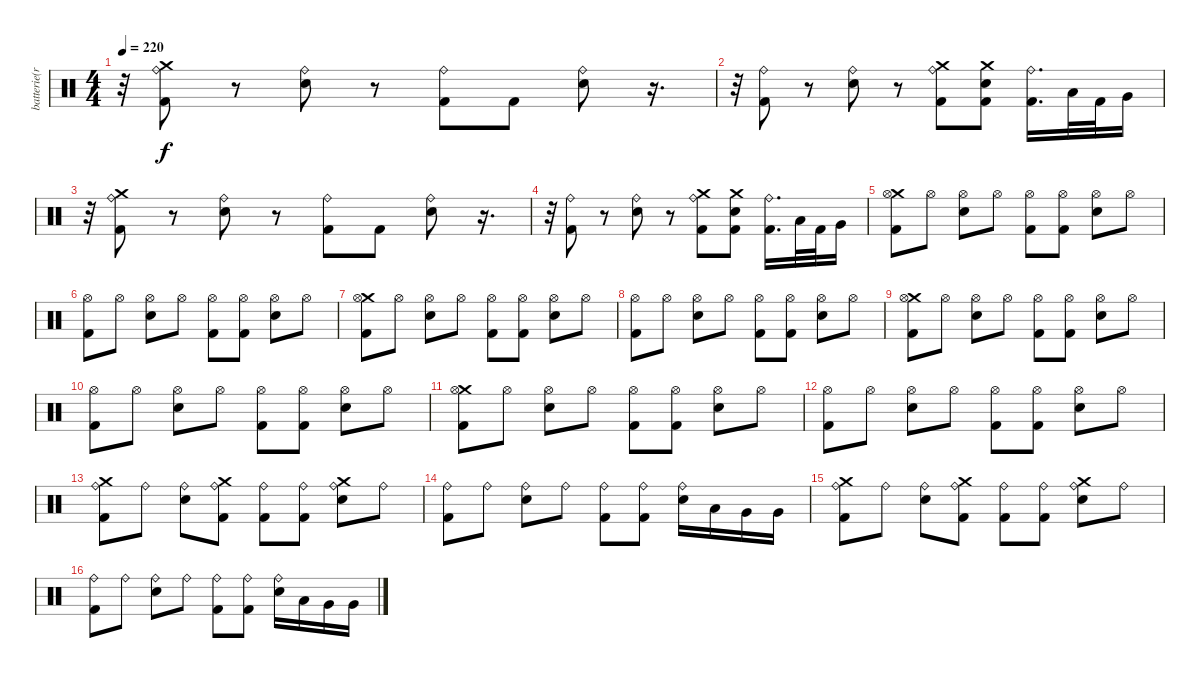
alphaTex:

\track ("batterie(richie)" "batterie(r") {instrument percussion}
\staff {score}
\articulation defaults
\ts (4 4)
\tempo 220
\clef neutral
\ks c
r.32{dy f} ("Crash medium (hit)" "Ride (bell)" "Kick (hit) 2").8 r.8 ("Ride (bell)" "Electric Snare (hit)").8 r.8 ("Ride (bell)" "Kick (hit) 2").8 "Kick (hit) 2".8 ("Ride (bell)" "Electric Snare (hit)").8 r.16{d} |
r.32 ("Ride (bell)" "Kick (hit) 2").8 r.8 ("Ride (bell)" "Electric Snare (hit)").8 r.8 ("Crash medium (hit)" "Ride (bell)" "Kick (hit) 2").8 ("Electric Snare (hit)" "Crash medium (hit)" "Kick (hit) 2").8 ("Kick (hit) 2" "Ride (bell)").16{d} "Low Tom (hit)".32 "Kick (hit) 2".32 "Very Low Tom (hit)".16 |
r.32 ("Crash medium (hit)" "Ride (bell)" "Kick (hit) 2").8 r.8 ("Ride (bell)" "Electric Snare (hit)").8 r.8 ("Ride (bell)" "Kick (hit) 2").8 "Kick (hit) 2".8 ("Ride (bell)" "Electric Snare (hit)").8 r.16{d} |
r.32 ("Ride (bell)" "Kick (hit) 2").8 r.8 ("Ride (bell)" "Electric Snare (hit)").8 r.8 ("Crash medium (hit)" "Ride (bell)" "Kick (hit) 2").8 ("Electric Snare (hit)" "Crash medium (hit)" "Kick (hit) 2").8 ("Kick (hit) 2" "Ride (bell)").16{d} "Low Tom (hit)".32 "Kick (hit) 2".32 "Very Low Tom (hit)".16 |
("Kick (hit) 2" "Crash medium (hit)" "Hi-Hat (open)").8 "Hi-Hat (open)".8 ("Electric Snare (hit)" "Hi-Hat (open)").8 "Hi-Hat (open)".8 ("Hi-Hat (open)" "Kick (hit) 2").8 ("Hi-Hat (open)" "Kick (hit) 2").8 ("Electric Snare (hit)" "Hi-Hat (open)").8 "Hi-Hat (open)".8 |
("Kick (hit) 2" "Hi-Hat (open)").8 "Hi-Hat (open)".8 ("Electric Snare (hit)" "Hi-Hat (open)").8 "Hi-Hat (open)".8 ("Hi-Hat (open)" "Kick (hit) 2").8 ("Hi-Hat (open)" "Kick (hit) 2").8 ("Electric Snare (hit)" "Hi-Hat (open)").8 "Hi-Hat (open)".8 |
("Kick (hit) 2" "Crash medium (hit)" "Hi-Hat (open)").8 "Hi-Hat (open)".8 ("Electric Snare (hit)" "Hi-Hat (open)").8 "Hi-Hat (open)".8 ("Hi-Hat (open)" "Kick (hit) 2").8 ("Hi-Hat (open)" "Kick (hit) 2").8 ("Electric Snare (hit)" "Hi-Hat (open)").8 "Hi-Hat (open)".8 |
("Kick (hit) 2" "Hi-Hat (open)").8 "Hi-Hat (open)".8 ("Electric Snare (hit)" "Hi-Hat (open)").8 "Hi-Hat (open)".8 ("Hi-Hat (open)" "Kick (hit) 2").8 ("Hi-Hat (open)" "Kick (hit) 2").8 ("Electric Snare (hit)" "Hi-Hat (open)").8 "Hi-Hat (open)".8 |
("Kick (hit) 2" "Crash medium (hit)" "Hi-Hat (open)").8 "Hi-Hat (open)".8 ("Electric Snare (hit)" "Hi-Hat (open)").8 "Hi-Hat (open)".8 ("Hi-Hat (open)" "Kick (hit) 2").8 ("Hi-Hat (open)" "Kick (hit) 2").8 ("Electric Snare (hit)" "Hi-Hat (open)").8 "Hi-Hat (open)".8 |
("Kick (hit) 2" "Hi-Hat (open)").8 "Hi-Hat (open)".8 ("Electric Snare (hit)" "Hi-Hat (open)").8 "Hi-Hat (open)".8 ("Hi-Hat (open)" "Kick (hit) 2").8 ("Hi-Hat (open)" "Kick (hit) 2").8 ("Electric Snare (hit)" "Hi-Hat (open)").8 "Hi-Hat (open)".8 |
("Kick (hit) 2" "Crash medium (hit)" "Hi-Hat (open)").8 "Hi-Hat (open)".8 ("Electric Snare (hit)" "Hi-Hat (open)").8 "Hi-Hat (open)".8 ("Hi-Hat (open)" "Kick (hit) 2").8 ("Hi-Hat (open)" "Kick (hit) 2").8 ("Electric Snare (hit)" "Hi-Hat (open)").8 "Hi-Hat (open)".8 |
("Kick (hit) 2" "Hi-Hat (open)").8 "Hi-Hat (open)".8 ("Electric Snare (hit)" "Hi-Hat (open)").8 "Hi-Hat (open)".8 ("Hi-Hat (open)" "Kick (hit) 2").8 ("Hi-Hat (open)" "Kick (hit) 2").8 ("Electric Snare (hit)" "Hi-Hat (open)").8 "Hi-Hat (open)".8 |
("Crash medium (hit)" "Kick (hit) 2" "Ride (bell)").8 "Ride (bell)".8 ("Electric Snare (hit)" "Ride (bell)").8 ("Kick (hit) 2" "Crash medium (hit)" "Ride (bell)").8 ("Kick (hit) 2" "Ride (bell)").8 ("Kick (hit) 2" "Ride (bell)").8 ("Crash medium (hit)" "Electric Snare (hit)" "Ride (bell)").8 "Ride (bell)".8 |
("Kick (hit) 2" "Ride (bell)").8 "Ride (bell)".8 ("Electric Snare (hit)" "Ride (bell)").8 "Ride (bell)".8 ("Kick (hit) 2" "Ride (bell)").8 ("Kick (hit) 2" "Ride (bell)").8 ("Electric Snare (hit)" "Ride (bell)").16 "Low Tom (hit)".16 "Very Low Tom (hit)".16 "Very Low Tom (hit)".16 |
("Crash medium (hit)" "Kick (hit) 2" "Ride (bell)").8 "Ride (bell)".8 ("Electric Snare (hit)" "Ride (bell)").8 ("Kick (hit) 2" "Crash medium (hit)" "Ride (bell)").8 ("Kick (hit) 2" "Ride (bell)").8 ("Kick (hit) 2" "Ride (bell)").8 ("Crash medium (hit)" "Electric Snare (hit)" "Ride (bell)").8 "Ride (bell)".8 |
("Kick (hit) 2" "Ride (bell)").8 "Ride (bell)".8 ("Electric Snare (hit)" "Ride (bell)").8 "Ride (bell)".8 ("Kick (hit) 2" "Ride (bell)").8 ("Kick (hit) 2" "Ride (bell)").8 ("Electric Snare (hit)" "Ride (bell)").16 "Low Tom (hit)".16 "Very Low Tom (hit)".16 "Very Low Tom (hit)".16
